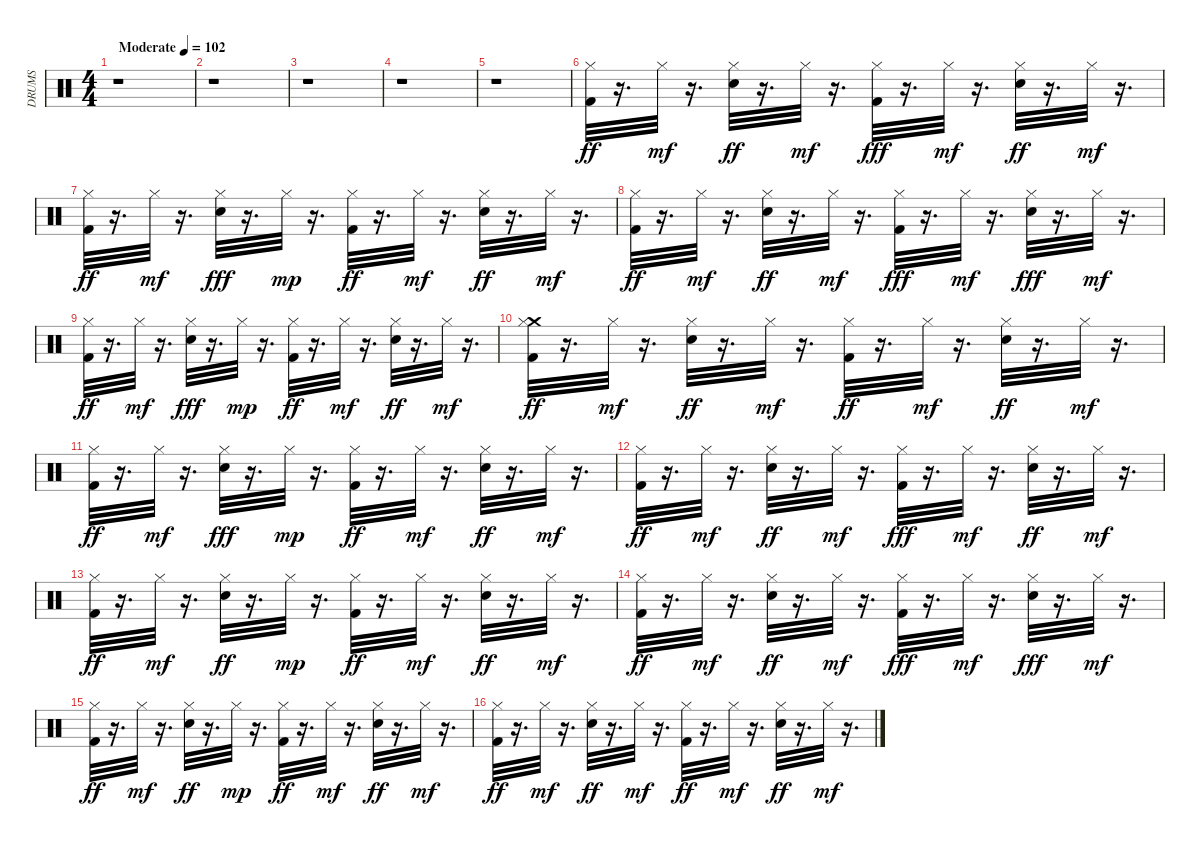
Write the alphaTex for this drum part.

\track ("DRUMS" "DRUMS") {instrument percussion}
\staff {score}
\articulation defaults
\ts (4 4)
\tempo (102 "Moderate")
\clef neutral
\ks c
r.1{dy ff} |
r.1 |
r.1 |
r.1 |
r.1 |
("Hi-Hat (closed)" "Kick (hit) 2").32 r.16{d} "Hi-Hat (closed)".32{dy mf} r.16{d} ("Hi-Hat (closed)" "Electric Snare (hit)").32{dy ff} r.16{d} "Hi-Hat (closed)".32{dy mf} r.16{d} ("Hi-Hat (closed)" "Kick (hit) 2").32{dy fff} r.16{d} "Hi-Hat (closed)".32{dy mf} r.16{d} ("Hi-Hat (closed)" "Electric Snare (hit)").32{dy ff} r.16{d} "Hi-Hat (closed)".32{dy mf} r.16{d} |
("Hi-Hat (closed)" "Kick (hit) 2").32{dy ff} r.16{d} "Hi-Hat (closed)".32{dy mf} r.16{d} ("Hi-Hat (closed)" "Electric Snare (hit)").32{dy fff} r.16{d} "Hi-Hat (closed)".32{dy mp} r.16{d} ("Hi-Hat (closed)" "Kick (hit) 2").32{dy ff} r.16{d} "Hi-Hat (closed)".32{dy mf} r.16{d} ("Hi-Hat (closed)" "Electric Snare (hit)").32{dy ff} r.16{d} "Hi-Hat (closed)".32{dy mf} r.16{d} |
("Hi-Hat (closed)" "Kick (hit) 2").32{dy ff} r.16{d} "Hi-Hat (closed)".32{dy mf} r.16{d} ("Hi-Hat (closed)" "Electric Snare (hit)").32{dy ff} r.16{d} "Hi-Hat (closed)".32{dy mf} r.16{d} ("Hi-Hat (closed)" "Kick (hit) 2").32{dy fff} r.16{d} "Hi-Hat (closed)".32{dy mf} r.16{d} ("Hi-Hat (closed)" "Electric Snare (hit)").32{dy fff} r.16{d} "Hi-Hat (closed)".32{dy mf} r.16{d} |
("Hi-Hat (closed)" "Kick (hit) 2").32{dy ff} r.16{d} "Hi-Hat (closed)".32{dy mf} r.16{d} ("Hi-Hat (closed)" "Electric Snare (hit)").32{dy fff} r.16{d} "Hi-Hat (closed)".32{dy mp} r.16{d} ("Hi-Hat (closed)" "Kick (hit) 2").32{dy ff} r.16{d} "Hi-Hat (closed)".32{dy mf} r.16{d} ("Hi-Hat (closed)" "Electric Snare (hit)").32{dy ff} r.16{d} "Hi-Hat (closed)".32{dy mf} r.16{d} |
("Crash medium (hit)" "Hi-Hat (closed)" "Kick (hit) 2").32{dy ff} r.16{d} "Hi-Hat (closed)".32{dy mf} r.16{d} ("Electric Snare (hit)" "Hi-Hat (closed)").32{dy ff} r.16{d} "Hi-Hat (closed)".32{dy mf} r.16{d} ("Kick (hit) 2" "Hi-Hat (closed)").32{dy ff} r.16{d} "Hi-Hat (closed)".32{dy mf} r.16{d} ("Hi-Hat (closed)" "Electric Snare (hit)").32{dy ff} r.16{d} "Hi-Hat (closed)".32{dy mf} r.16{d} |
("Kick (hit) 2" "Hi-Hat (closed)").32{dy ff} r.16{d} "Hi-Hat (closed)".32{dy mf} r.16{d} ("Electric Snare (hit)" "Hi-Hat (closed)").32{dy fff} r.16{d} "Hi-Hat (closed)".32{dy mp} r.16{d} ("Kick (hit) 2" "Hi-Hat (closed)").32{dy ff} r.16{d} "Hi-Hat (closed)".32{dy mf} r.16{d} ("Electric Snare (hit)" "Hi-Hat (closed)").32{dy ff} r.16{d} "Hi-Hat (closed)".32{dy mf} r.16{d} |
("Kick (hit) 2" "Hi-Hat (closed)").32{dy ff} r.16{d} "Hi-Hat (closed)".32{dy mf} r.16{d} ("Electric Snare (hit)" "Hi-Hat (closed)").32{dy ff} r.16{d} "Hi-Hat (closed)".32{dy mf} r.16{d} ("Hi-Hat (closed)" "Kick (hit) 2").32{dy fff} r.16{d} "Hi-Hat (closed)".32{dy mf} r.16{d} ("Electric Snare (hit)" "Hi-Hat (closed)").32{dy ff} r.16{d} "Hi-Hat (closed)".32{dy mf} r.16{d} |
("Kick (hit) 2" "Hi-Hat (closed)").32{dy ff} r.16{d} "Hi-Hat (closed)".32{dy mf} r.16{d} ("Electric Snare (hit)" "Hi-Hat (closed)").32{dy ff} r.16{d} "Hi-Hat (closed)".32{dy mp} r.16{d} ("Kick (hit) 2" "Hi-Hat (closed)").32{dy ff} r.16{d} "Hi-Hat (closed)".32{dy mf} r.16{d} ("Hi-Hat (closed)" "Electric Snare (hit)").32{dy ff} r.16{d} "Hi-Hat (closed)".32{dy mf} r.16{d} |
("Hi-Hat (closed)" "Kick (hit) 2").32{dy ff} r.16{d} "Hi-Hat (closed)".32{dy mf} r.16{d} ("Hi-Hat (closed)" "Electric Snare (hit)").32{dy ff} r.16{d} "Hi-Hat (closed)".32{dy mf} r.16{d} ("Hi-Hat (closed)" "Kick (hit) 2").32{dy fff} r.16{d} "Hi-Hat (closed)".32{dy mf} r.16{d} ("Hi-Hat (closed)" "Electric Snare (hit)").32{dy fff} r.16{d} "Hi-Hat (closed)".32{dy mf} r.16{d} |
("Kick (hit) 2" "Hi-Hat (closed)").32{dy ff} r.16{d} "Hi-Hat (closed)".32{dy mf} r.16{d} ("Electric Snare (hit)" "Hi-Hat (closed)").32{dy ff} r.16{d} "Hi-Hat (closed)".32{dy mp} r.16{d} ("Hi-Hat (closed)" "Kick (hit) 2").32{dy ff} r.16{d} "Hi-Hat (closed)".32{dy mf} r.16{d} ("Electric Snare (hit)" "Hi-Hat (closed)").32{dy ff} r.16{d} "Hi-Hat (closed)".32{dy mf} r.16{d} |
("Kick (hit) 2" "Hi-Hat (closed)").32{dy ff} r.16{d} "Hi-Hat (closed)".32{dy mf} r.16{d} ("Electric Snare (hit)" "Hi-Hat (closed)").32{dy ff} r.16{d} "Hi-Hat (closed)".32{dy mf} r.16{d} ("Kick (hit) 2" "Hi-Hat (closed)").32{dy ff} r.16{d} "Hi-Hat (closed)".32{dy mf} r.16{d} ("Electric Snare (hit)" "Hi-Hat (closed)").32{dy ff} r.16{d} "Hi-Hat (closed)".32{dy mf} r.16{d}
